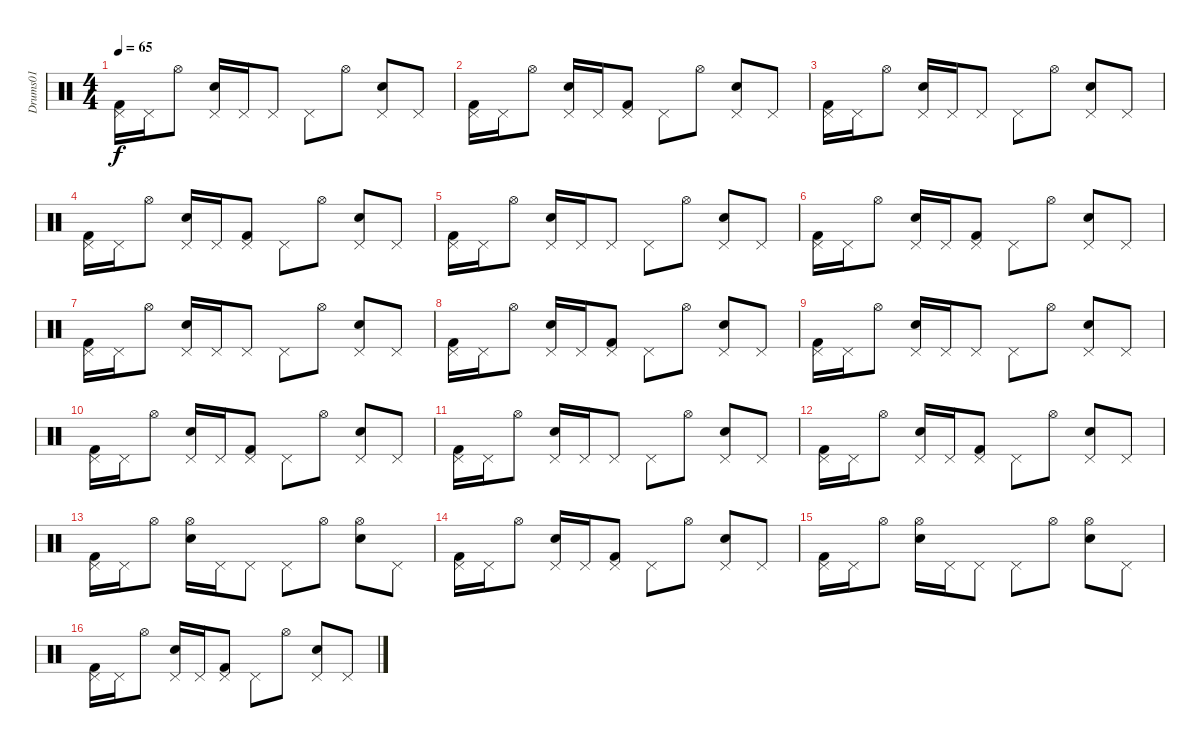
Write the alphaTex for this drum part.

\track ("Drums01" "Drums01") {instrument percussion}
\staff {score}
\articulation defaults
\ts (4 4)
\tempo 65
\clef neutral
\ks c
("Pedal Hi-Hat (hit)" "Kick (hit) 2").16{dy f} "Pedal Hi-Hat (hit)".16 "Hi-Hat (open)".8 ("Pedal Hi-Hat (hit)" "Snare (hit) 2").16 "Pedal Hi-Hat (hit)".16 "Pedal Hi-Hat (hit)".8 "Pedal Hi-Hat (hit)".8 "Hi-Hat (open)".8 ("Pedal Hi-Hat (hit)" "Snare (hit) 2").8 "Pedal Hi-Hat (hit)".8 |
("Pedal Hi-Hat (hit)" "Kick (hit) 2").16 "Pedal Hi-Hat (hit)".16 "Hi-Hat (open)".8 ("Pedal Hi-Hat (hit)" "Snare (hit) 2").16 "Pedal Hi-Hat (hit)".16 ("Pedal Hi-Hat (hit)" "Kick (hit) 2").8 "Pedal Hi-Hat (hit)".8 "Hi-Hat (open)".8 ("Pedal Hi-Hat (hit)" "Snare (hit) 2").8 "Pedal Hi-Hat (hit)".8 |
("Pedal Hi-Hat (hit)" "Kick (hit) 2").16 "Pedal Hi-Hat (hit)".16 "Hi-Hat (open)".8 ("Pedal Hi-Hat (hit)" "Snare (hit) 2").16 "Pedal Hi-Hat (hit)".16 "Pedal Hi-Hat (hit)".8 "Pedal Hi-Hat (hit)".8 "Hi-Hat (open)".8 ("Pedal Hi-Hat (hit)" "Snare (hit) 2").8 "Pedal Hi-Hat (hit)".8 |
("Pedal Hi-Hat (hit)" "Kick (hit) 2").16 "Pedal Hi-Hat (hit)".16 "Hi-Hat (open)".8 ("Pedal Hi-Hat (hit)" "Snare (hit) 2").16 "Pedal Hi-Hat (hit)".16 ("Pedal Hi-Hat (hit)" "Kick (hit) 2").8 "Pedal Hi-Hat (hit)".8 "Hi-Hat (open)".8 ("Pedal Hi-Hat (hit)" "Snare (hit) 2").8 "Pedal Hi-Hat (hit)".8 |
("Pedal Hi-Hat (hit)" "Kick (hit) 2").16 "Pedal Hi-Hat (hit)".16 "Hi-Hat (open)".8 ("Pedal Hi-Hat (hit)" "Snare (hit) 2").16 "Pedal Hi-Hat (hit)".16 "Pedal Hi-Hat (hit)".8 "Pedal Hi-Hat (hit)".8 "Hi-Hat (open)".8 ("Pedal Hi-Hat (hit)" "Snare (hit) 2").8 "Pedal Hi-Hat (hit)".8 |
("Pedal Hi-Hat (hit)" "Kick (hit) 2").16 "Pedal Hi-Hat (hit)".16 "Hi-Hat (open)".8 ("Pedal Hi-Hat (hit)" "Snare (hit) 2").16 "Pedal Hi-Hat (hit)".16 ("Pedal Hi-Hat (hit)" "Kick (hit) 2").8 "Pedal Hi-Hat (hit)".8 "Hi-Hat (open)".8 ("Pedal Hi-Hat (hit)" "Snare (hit) 2").8 "Pedal Hi-Hat (hit)".8 |
("Pedal Hi-Hat (hit)" "Kick (hit) 2").16 "Pedal Hi-Hat (hit)".16 "Hi-Hat (open)".8 ("Pedal Hi-Hat (hit)" "Snare (hit) 2").16 "Pedal Hi-Hat (hit)".16 "Pedal Hi-Hat (hit)".8 "Pedal Hi-Hat (hit)".8 "Hi-Hat (open)".8 ("Pedal Hi-Hat (hit)" "Snare (hit) 2").8 "Pedal Hi-Hat (hit)".8 |
("Pedal Hi-Hat (hit)" "Kick (hit) 2").16 "Pedal Hi-Hat (hit)".16 "Hi-Hat (open)".8 ("Pedal Hi-Hat (hit)" "Snare (hit) 2").16 "Pedal Hi-Hat (hit)".16 ("Pedal Hi-Hat (hit)" "Kick (hit) 2").8 "Pedal Hi-Hat (hit)".8 "Hi-Hat (open)".8 ("Pedal Hi-Hat (hit)" "Snare (hit) 2").8 "Pedal Hi-Hat (hit)".8 |
("Pedal Hi-Hat (hit)" "Kick (hit) 2").16 "Pedal Hi-Hat (hit)".16 "Hi-Hat (open)".8 ("Pedal Hi-Hat (hit)" "Snare (hit) 2").16 "Pedal Hi-Hat (hit)".16 "Pedal Hi-Hat (hit)".8 "Pedal Hi-Hat (hit)".8 "Hi-Hat (open)".8 ("Pedal Hi-Hat (hit)" "Snare (hit) 2").8 "Pedal Hi-Hat (hit)".8 |
("Pedal Hi-Hat (hit)" "Kick (hit) 2").16 "Pedal Hi-Hat (hit)".16 "Hi-Hat (open)".8 ("Pedal Hi-Hat (hit)" "Snare (hit) 2").16 "Pedal Hi-Hat (hit)".16 ("Pedal Hi-Hat (hit)" "Kick (hit) 2").8 "Pedal Hi-Hat (hit)".8 "Hi-Hat (open)".8 ("Pedal Hi-Hat (hit)" "Snare (hit) 2").8 "Pedal Hi-Hat (hit)".8 |
("Pedal Hi-Hat (hit)" "Kick (hit) 2").16 "Pedal Hi-Hat (hit)".16 "Hi-Hat (open)".8 ("Pedal Hi-Hat (hit)" "Snare (hit) 2").16 "Pedal Hi-Hat (hit)".16 "Pedal Hi-Hat (hit)".8 "Pedal Hi-Hat (hit)".8 "Hi-Hat (open)".8 ("Pedal Hi-Hat (hit)" "Snare (hit) 2").8 "Pedal Hi-Hat (hit)".8 |
("Pedal Hi-Hat (hit)" "Kick (hit) 2").16 "Pedal Hi-Hat (hit)".16 "Hi-Hat (open)".8 ("Pedal Hi-Hat (hit)" "Snare (hit) 2").16 "Pedal Hi-Hat (hit)".16 ("Pedal Hi-Hat (hit)" "Kick (hit) 2").8 "Pedal Hi-Hat (hit)".8 "Hi-Hat (open)".8 ("Pedal Hi-Hat (hit)" "Snare (hit) 2").8 "Pedal Hi-Hat (hit)".8 |
("Pedal Hi-Hat (hit)" "Kick (hit) 2").16 "Pedal Hi-Hat (hit)".16 "Hi-Hat (open)".8 ("Hi-Hat (open)" "Snare (hit) 2").16 "Pedal Hi-Hat (hit)".16 "Pedal Hi-Hat (hit)".8 "Pedal Hi-Hat (hit)".8 "Hi-Hat (open)".8 ("Hi-Hat (open)" "Snare (hit) 2").8 "Pedal Hi-Hat (hit)".8 |
("Pedal Hi-Hat (hit)" "Kick (hit) 2").16 "Pedal Hi-Hat (hit)".16 "Hi-Hat (open)".8 ("Pedal Hi-Hat (hit)" "Snare (hit) 2").16 "Pedal Hi-Hat (hit)".16 ("Pedal Hi-Hat (hit)" "Kick (hit) 2").8 "Pedal Hi-Hat (hit)".8 "Hi-Hat (open)".8 ("Pedal Hi-Hat (hit)" "Snare (hit) 2").8 "Pedal Hi-Hat (hit)".8 |
("Pedal Hi-Hat (hit)" "Kick (hit) 2").16 "Pedal Hi-Hat (hit)".16 "Hi-Hat (open)".8 ("Hi-Hat (open)" "Snare (hit) 2").16 "Pedal Hi-Hat (hit)".16 "Pedal Hi-Hat (hit)".8 "Pedal Hi-Hat (hit)".8 "Hi-Hat (open)".8 ("Hi-Hat (open)" "Snare (hit) 2").8 "Pedal Hi-Hat (hit)".8 |
("Pedal Hi-Hat (hit)" "Kick (hit) 2").16 "Pedal Hi-Hat (hit)".16 "Hi-Hat (open)".8 ("Pedal Hi-Hat (hit)" "Snare (hit) 2").16 "Pedal Hi-Hat (hit)".16 ("Pedal Hi-Hat (hit)" "Kick (hit) 2").8 "Pedal Hi-Hat (hit)".8 "Hi-Hat (open)".8 ("Pedal Hi-Hat (hit)" "Snare (hit) 2").8 "Pedal Hi-Hat (hit)".8
